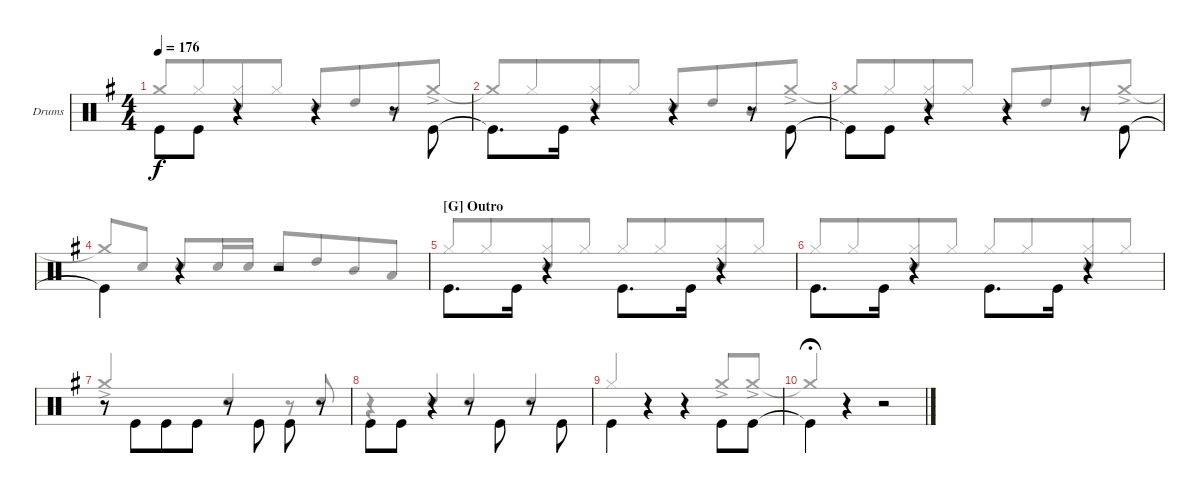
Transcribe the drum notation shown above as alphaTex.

\bracketExtendMode groupsimilarinstruments
\firstSystemTrackNameOrientation horizontal
\otherSystemsTrackNameOrientation horizontal
\track ("Drums" "Drums") {instrument percussion}
\staff {score}
\articulation defaults
\voice
\ts (4 4)
\tempo 176
\clef neutral
\scale
1.04288
\ks g "Kick (hit)"{t}.8{dy f beam invert} "Kick (hit)".8
r.4 r.4 r.8 "Kick (hit)".8{beam invert} |
\scale
0.957125 "Kick (hit)"{t}.8{d beam invert} "Kick (hit)".16 r.4{beam invert} r.4{beam invert} r.8{beam invert} "Kick (hit)".8{beam invert} |
\scale
1.04288 "Kick (hit)"{t}.8{beam invert} "Kick (hit)".8 r.4 r.4 r.8 "Kick (hit)".8{beam invert} |
\scale
0.957125 "Kick (hit)"{t}.4{beam invert} r.4 r.2 |
\section ("G" "Outro")
\scale
1.04288 "Kick (hit)".8{d beam invert} "Kick (hit)".16 r.4{beam invert} "Kick (hit)".8{d beam invert} "Kick (hit)".16 r.4{beam invert} |
\scale
0.957125 "Kick (hit)".8{d beam invert} "Kick (hit)".16 r.4{beam invert} "Kick (hit)".8{d beam invert} "Kick (hit)".16 r.4{beam invert} |
\scale
1.04288 r.8 "Kick (hit)".8{beam invert beam merge} "Kick (hit)".8 "Kick (hit)".8 r.8{beam invert} "Kick (hit)".8{beam invert} "Kick (hit)".8{beam invert} r.8 |
\scale
0.957125 "Kick (hit)".8{beam invert} "Kick (hit)".8 r.4{beam invert} r.8 "Kick (hit)".8{beam invert} r.8 "Kick (hit)".8{beam invert} |
"Kick (hit)".4{beam invert} r.4 r.4 "Kick (hit)".8{beam invert} "Kick (hit)".8 |
"Kick (hit)"{t}.4{fermata (medium 0.63) beam invert} r.4 r.2
\voice
\clef neutral
\ottava regular
\simile none
\scale
1.04288
\ks g "Crash medium (hit)"{t}.8{dy f beam invert} "Hi-Hat (closed)".8{beam merge}
("Hi-Hat (closed)" "Snare (hit) 2").8{beam merge} "Hi-Hat (closed)".8{beam split} "Snare (hit) 2".8{beam invert} "High Tom (hit)".8{beam merge} "Mid Tom (hit)".8 "Crash medium (hit)"{ac}.8 |
\scale
0.957125 "Crash medium (hit)"{t}.8{beam invert} "Hi-Hat (closed)".8{beam merge} ("Hi-Hat (closed)" "Snare (hit) 2").8{beam merge} "Hi-Hat (closed)".8{beam split} "Snare (hit) 2".8{beam invert} "High Tom (hit)".8{beam merge} "Mid Tom (hit)".8 "Crash medium (hit)"{ac}.8 |
\scale
1.04288 "Crash medium (hit)"{t}.8{beam invert} "Hi-Hat (closed)".8{beam merge} ("Hi-Hat (closed)" "Snare (hit) 2").8{beam merge} "Hi-Hat (closed)".8{beam split} "Snare (hit) 2".8{beam invert} "High Tom (hit)".8{beam merge} "Mid Tom (hit)".8 "Crash medium (hit)"{ac}.8 |
\scale
0.957125 "Crash medium (hit)"{t}.8{beam invert} "Snare (hit) 2".8 "Snare (hit) 2".8{beam invert} "Snare (hit) 2".16 "Snare (hit) 2".16 "Snare (hit) 2".8{beam invert} "High Tom (hit)".8{beam merge} "Mid Tom (hit)".8 "Low Tom (hit)".8 |
\scale
1.04288 "Hi-Hat (closed)".8{beam invert beam merge} "Hi-Hat (closed)".8{beam merge} ("Hi-Hat (closed)" "Snare (hit) 2").8{beam merge} "Hi-Hat (closed)".8{beam split} "Hi-Hat (closed)".8{beam invert beam merge} "Hi-Hat (closed)".8{beam merge} ("Hi-Hat (closed)" "Snare (hit) 2").8{beam merge} "Hi-Hat (closed)".8{beam split} |
\scale
0.957125 "Hi-Hat (closed)".8{beam invert beam merge} "Hi-Hat (closed)".8{beam merge} ("Hi-Hat (closed)" "Snare (hit) 2").8{beam merge} "Hi-Hat (closed)".8{beam split} "Hi-Hat (closed)".8{beam invert beam merge} "Hi-Hat (closed)".8{beam merge} ("Hi-Hat (closed)" "Snare (hit) 2").8{beam merge} "Hi-Hat (closed)".8{beam split} |
\scale
1.04288 "Crash medium (hit)"{ac}.2{beam invert} "Snare (hit) 2".4{beam invert} r.8 "Snare (hit) 2".8{beam invert} |
\scale
0.957125 r.4 "Snare (hit) 2".4{beam invert} "Snare (hit) 2".4{beam invert} "Snare (hit) 2".4{beam invert} |
"Hi-Hat (closed)".4{beam invert} r.4 r.4 "Crash medium (hit)"{ac}.8{beam invert} "Crash medium (hit)"{ac}.8 |
"Crash medium (hit)"{t}.4{fermata (medium 0.63) beam invert} r.4 r.2
